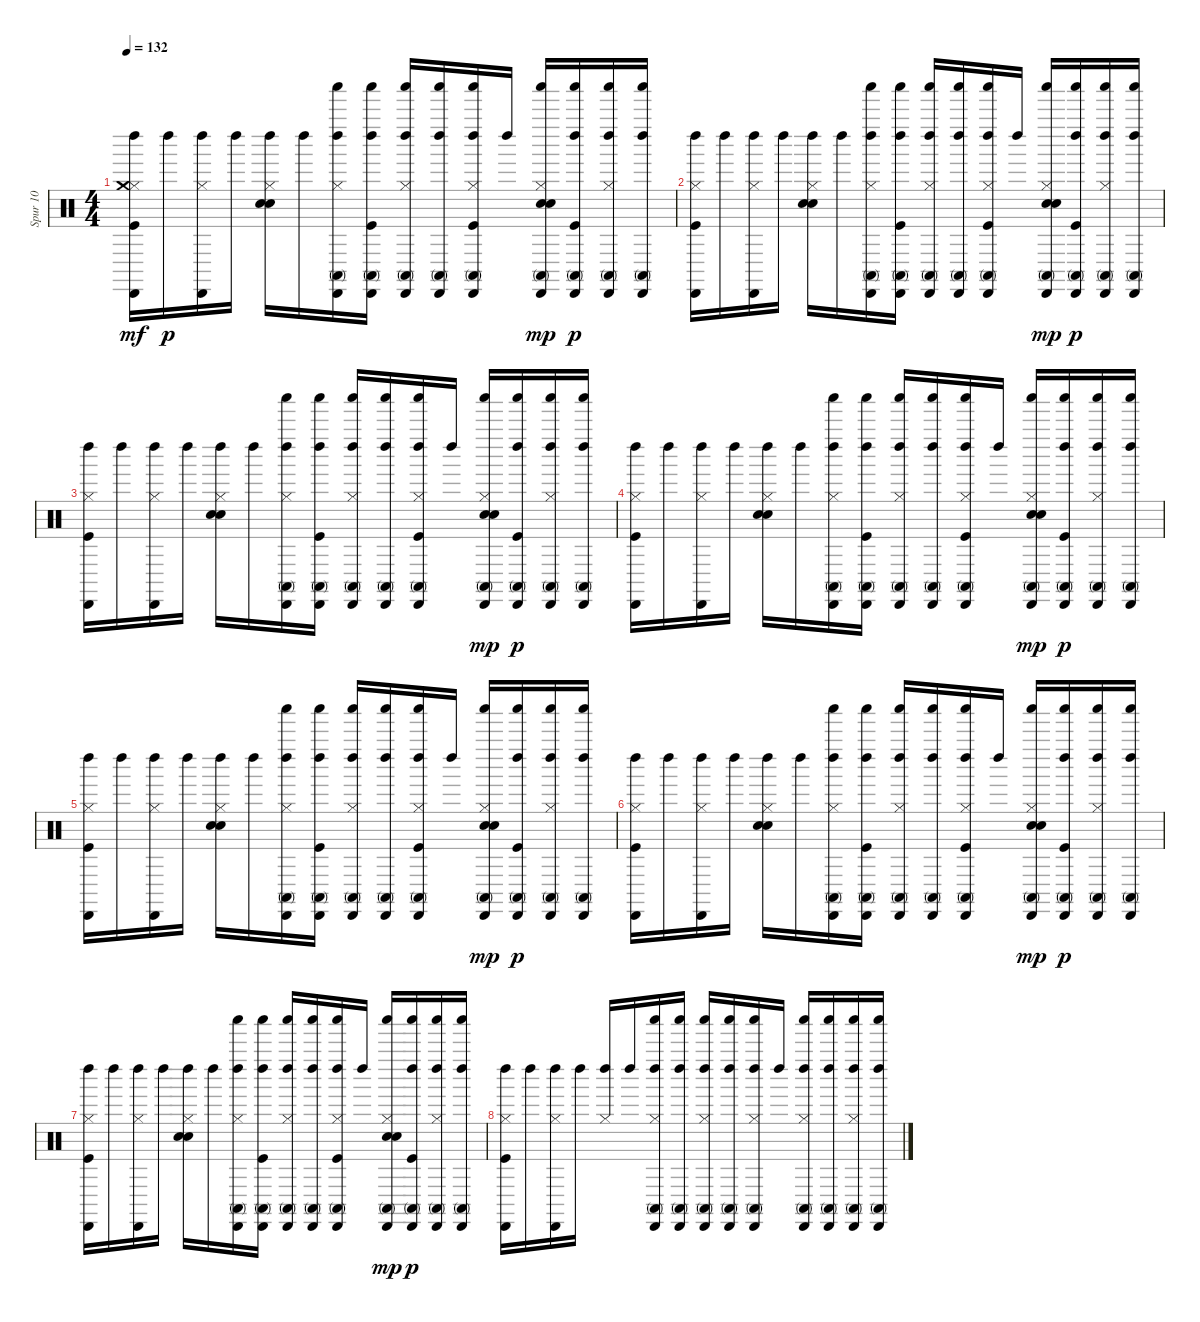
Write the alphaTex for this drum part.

\track ("Spur 10" "Spur 10") {instrument percussion}
\staff {score}
\articulation defaults
\ts (4 4)
\tempo 132
\clef neutral
\ks c
("Kick (hit)" "Hi-Hat (closed)" "Cabasa (hit)" "Left Maraca (hit)" "Crash medium (hit)").16{dy mf} "Left Maraca (hit)".16{dy p} ("Hi-Hat (closed)" "Cabasa (hit)" "Left Maraca (hit)").16 "Left Maraca (hit)".16 ("Hi-Hat (closed)" "Snare (hit) 2" "Hand Clap (hit)" "Left Maraca (hit)").16 "Left Maraca (hit)".16 ("Shaker (hit)" "Hi-Hat (closed)" "Conga high (mute)" "Cabasa (hit)" "Left Maraca (hit)").16 ("Shaker (hit)" "Kick (hit)" "Conga high (mute)" "Cabasa (hit)" "Left Maraca (hit)").16 ("Shaker (hit)" "Hi-Hat (closed)" "Conga high (mute)" "Cabasa (hit)" "Left Maraca (hit)").16 ("Shaker (hit)" "Conga high (mute)" "Cabasa (hit)" "Left Maraca (hit)").16 ("Shaker (hit)" "Kick (hit)" "Hi-Hat (closed)" "Conga high (mute)" "Cabasa (hit)" "Left Maraca (hit)").16 "Left Maraca (hit)".16 ("Shaker (hit)" "Hi-Hat (closed)" "Snare (hit) 2" "Conga high (mute)" "Cabasa (hit)" "Hand Clap (hit)").16{dy mp} ("Shaker (hit)" "Kick (hit)" "Conga high (mute)" "Cabasa (hit)" "Left Maraca (hit)").16{dy p} ("Shaker (hit)" "Hi-Hat (closed)" "Conga high (mute)" "Cabasa (hit)" "Left Maraca (hit)").16 ("Shaker (hit)" "Conga high (mute)" "Cabasa (hit)" "Left Maraca (hit)").16 |
("Kick (hit)" "Hi-Hat (closed)" "Cabasa (hit)" "Left Maraca (hit)").16 "Left Maraca (hit)".16 ("Hi-Hat (closed)" "Cabasa (hit)" "Left Maraca (hit)").16 "Left Maraca (hit)".16 ("Hi-Hat (closed)" "Snare (hit) 2" "Hand Clap (hit)" "Left Maraca (hit)").16 "Left Maraca (hit)".16 ("Shaker (hit)" "Hi-Hat (closed)" "Cabasa (hit)" "Conga high (mute)" "Left Maraca (hit)").16 ("Shaker (hit)" "Kick (hit)" "Cabasa (hit)" "Conga high (mute)" "Left Maraca (hit)").16 ("Shaker (hit)" "Hi-Hat (closed)" "Cabasa (hit)" "Conga high (mute)" "Left Maraca (hit)").16 ("Shaker (hit)" "Cabasa (hit)" "Conga high (mute)" "Left Maraca (hit)").16 ("Shaker (hit)" "Kick (hit)" "Hi-Hat (closed)" "Cabasa (hit)" "Conga high (mute)" "Left Maraca (hit)").16 "Left Maraca (hit)".16 ("Shaker (hit)" "Hi-Hat (closed)" "Snare (hit) 2" "Cabasa (hit)" "Conga high (mute)" "Hand Clap (hit)").16{dy mp} ("Shaker (hit)" "Kick (hit)" "Cabasa (hit)" "Conga high (mute)" "Left Maraca (hit)").16{dy p} ("Shaker (hit)" "Hi-Hat (closed)" "Cabasa (hit)" "Conga high (mute)" "Left Maraca (hit)").16 ("Shaker (hit)" "Cabasa (hit)" "Conga high (mute)" "Left Maraca (hit)").16 |
("Kick (hit)" "Hi-Hat (closed)" "Cabasa (hit)" "Left Maraca (hit)").16 "Left Maraca (hit)".16 ("Hi-Hat (closed)" "Cabasa (hit)" "Left Maraca (hit)").16 "Left Maraca (hit)".16 ("Hi-Hat (closed)" "Snare (hit) 2" "Hand Clap (hit)" "Left Maraca (hit)").16 "Left Maraca (hit)".16 ("Shaker (hit)" "Hi-Hat (closed)" "Conga high (mute)" "Cabasa (hit)" "Left Maraca (hit)").16 ("Shaker (hit)" "Kick (hit)" "Conga high (mute)" "Cabasa (hit)" "Left Maraca (hit)").16 ("Shaker (hit)" "Hi-Hat (closed)" "Conga high (mute)" "Cabasa (hit)" "Left Maraca (hit)").16 ("Shaker (hit)" "Conga high (mute)" "Cabasa (hit)" "Left Maraca (hit)").16 ("Shaker (hit)" "Kick (hit)" "Hi-Hat (closed)" "Conga high (mute)" "Cabasa (hit)" "Left Maraca (hit)").16 "Left Maraca (hit)".16 ("Shaker (hit)" "Hi-Hat (closed)" "Snare (hit) 2" "Conga high (mute)" "Cabasa (hit)" "Hand Clap (hit)").16{dy mp} ("Shaker (hit)" "Kick (hit)" "Conga high (mute)" "Cabasa (hit)" "Left Maraca (hit)").16{dy p} ("Shaker (hit)" "Hi-Hat (closed)" "Conga high (mute)" "Cabasa (hit)" "Left Maraca (hit)").16 ("Shaker (hit)" "Conga high (mute)" "Cabasa (hit)" "Left Maraca (hit)").16 |
("Kick (hit)" "Hi-Hat (closed)" "Cabasa (hit)" "Left Maraca (hit)").16 "Left Maraca (hit)".16 ("Hi-Hat (closed)" "Cabasa (hit)" "Left Maraca (hit)").16 "Left Maraca (hit)".16 ("Hi-Hat (closed)" "Snare (hit) 2" "Hand Clap (hit)" "Left Maraca (hit)").16 "Left Maraca (hit)".16 ("Shaker (hit)" "Hi-Hat (closed)" "Conga high (mute)" "Cabasa (hit)" "Left Maraca (hit)").16 ("Shaker (hit)" "Kick (hit)" "Conga high (mute)" "Cabasa (hit)" "Left Maraca (hit)").16 ("Shaker (hit)" "Hi-Hat (closed)" "Conga high (mute)" "Cabasa (hit)" "Left Maraca (hit)").16 ("Shaker (hit)" "Conga high (mute)" "Cabasa (hit)" "Left Maraca (hit)").16 ("Shaker (hit)" "Kick (hit)" "Hi-Hat (closed)" "Conga high (mute)" "Cabasa (hit)" "Left Maraca (hit)").16 "Left Maraca (hit)".16 ("Shaker (hit)" "Hi-Hat (closed)" "Snare (hit) 2" "Conga high (mute)" "Cabasa (hit)" "Hand Clap (hit)").16{dy mp} ("Shaker (hit)" "Kick (hit)" "Conga high (mute)" "Cabasa (hit)" "Left Maraca (hit)").16{dy p} ("Shaker (hit)" "Hi-Hat (closed)" "Conga high (mute)" "Cabasa (hit)" "Left Maraca (hit)").16 ("Shaker (hit)" "Conga high (mute)" "Cabasa (hit)" "Left Maraca (hit)").16 |
("Kick (hit)" "Hi-Hat (closed)" "Left Maraca (hit)" "Cabasa (hit)").16 "Left Maraca (hit)".16 ("Hi-Hat (closed)" "Left Maraca (hit)" "Cabasa (hit)").16 "Left Maraca (hit)".16 ("Hi-Hat (closed)" "Snare (hit) 2" "Hand Clap (hit)" "Left Maraca (hit)").16 "Left Maraca (hit)".16 ("Shaker (hit)" "Hi-Hat (closed)" "Cabasa (hit)" "Conga high (mute)" "Left Maraca (hit)").16 ("Shaker (hit)" "Kick (hit)" "Cabasa (hit)" "Conga high (mute)" "Left Maraca (hit)").16 ("Shaker (hit)" "Hi-Hat (closed)" "Cabasa (hit)" "Conga high (mute)" "Left Maraca (hit)").16 ("Shaker (hit)" "Cabasa (hit)" "Conga high (mute)" "Left Maraca (hit)").16 ("Shaker (hit)" "Kick (hit)" "Hi-Hat (closed)" "Cabasa (hit)" "Conga high (mute)" "Left Maraca (hit)").16 "Left Maraca (hit)".16 ("Shaker (hit)" "Hi-Hat (closed)" "Snare (hit) 2" "Cabasa (hit)" "Conga high (mute)" "Hand Clap (hit)").16{dy mp} ("Shaker (hit)" "Kick (hit)" "Cabasa (hit)" "Conga high (mute)" "Left Maraca (hit)").16{dy p} ("Shaker (hit)" "Hi-Hat (closed)" "Cabasa (hit)" "Conga high (mute)" "Left Maraca (hit)").16 ("Shaker (hit)" "Cabasa (hit)" "Conga high (mute)" "Left Maraca (hit)").16 |
("Kick (hit)" "Hi-Hat (closed)" "Cabasa (hit)" "Left Maraca (hit)").16 "Left Maraca (hit)".16 ("Hi-Hat (closed)" "Cabasa (hit)" "Left Maraca (hit)").16 "Left Maraca (hit)".16 ("Hi-Hat (closed)" "Snare (hit) 2" "Hand Clap (hit)" "Left Maraca (hit)").16 "Left Maraca (hit)".16 ("Shaker (hit)" "Hi-Hat (closed)" "Conga high (mute)" "Cabasa (hit)" "Left Maraca (hit)").16 ("Shaker (hit)" "Kick (hit)" "Conga high (mute)" "Cabasa (hit)" "Left Maraca (hit)").16 ("Shaker (hit)" "Hi-Hat (closed)" "Conga high (mute)" "Cabasa (hit)" "Left Maraca (hit)").16 ("Shaker (hit)" "Conga high (mute)" "Cabasa (hit)" "Left Maraca (hit)").16 ("Shaker (hit)" "Kick (hit)" "Hi-Hat (closed)" "Conga high (mute)" "Cabasa (hit)" "Left Maraca (hit)").16 "Left Maraca (hit)".16 ("Shaker (hit)" "Hi-Hat (closed)" "Snare (hit) 2" "Conga high (mute)" "Cabasa (hit)" "Hand Clap (hit)").16{dy mp} ("Shaker (hit)" "Kick (hit)" "Conga high (mute)" "Cabasa (hit)" "Left Maraca (hit)").16{dy p} ("Shaker (hit)" "Hi-Hat (closed)" "Conga high (mute)" "Cabasa (hit)" "Left Maraca (hit)").16 ("Shaker (hit)" "Conga high (mute)" "Cabasa (hit)" "Left Maraca (hit)").16 |
("Kick (hit)" "Hi-Hat (closed)" "Cabasa (hit)" "Left Maraca (hit)").16 "Left Maraca (hit)".16 ("Hi-Hat (closed)" "Cabasa (hit)" "Left Maraca (hit)").16 "Left Maraca (hit)".16 ("Hi-Hat (closed)" "Snare (hit) 2" "Hand Clap (hit)" "Left Maraca (hit)").16 "Left Maraca (hit)".16 ("Shaker (hit)" "Hi-Hat (closed)" "Cabasa (hit)" "Conga high (mute)" "Left Maraca (hit)").16 ("Shaker (hit)" "Kick (hit)" "Cabasa (hit)" "Conga high (mute)" "Left Maraca (hit)").16 ("Shaker (hit)" "Hi-Hat (closed)" "Cabasa (hit)" "Conga high (mute)" "Left Maraca (hit)").16 ("Shaker (hit)" "Cabasa (hit)" "Conga high (mute)" "Left Maraca (hit)").16 ("Shaker (hit)" "Kick (hit)" "Hi-Hat (closed)" "Cabasa (hit)" "Conga high (mute)" "Left Maraca (hit)").16 "Left Maraca (hit)".16 ("Shaker (hit)" "Hi-Hat (closed)" "Snare (hit) 2" "Cabasa (hit)" "Conga high (mute)" "Hand Clap (hit)").16{dy mp} ("Shaker (hit)" "Kick (hit)" "Cabasa (hit)" "Conga high (mute)" "Left Maraca (hit)").16{dy p} ("Shaker (hit)" "Hi-Hat (closed)" "Cabasa (hit)" "Conga high (mute)" "Left Maraca (hit)").16 ("Shaker (hit)" "Cabasa (hit)" "Conga high (mute)" "Left Maraca (hit)").16 |
("Kick (hit)" "Hi-Hat (closed)" "Cabasa (hit)" "Left Maraca (hit)").16 "Left Maraca (hit)".16 ("Hi-Hat (closed)" "Cabasa (hit)" "Left Maraca (hit)").16 "Left Maraca (hit)".16 ("Hi-Hat (closed)" "Left Maraca (hit)").16 "Left Maraca (hit)".16 ("Shaker (hit)" "Hi-Hat (closed)" "Conga high (mute)" "Cabasa (hit)" "Left Maraca (hit)").16 ("Shaker (hit)" "Conga high (mute)" "Cabasa (hit)" "Left Maraca (hit)").16 ("Shaker (hit)" "Hi-Hat (closed)" "Conga high (mute)" "Cabasa (hit)" "Left Maraca (hit)").16 ("Shaker (hit)" "Conga high (mute)" "Cabasa (hit)" "Left Maraca (hit)").16 ("Shaker (hit)" "Hi-Hat (closed)" "Conga high (mute)" "Cabasa (hit)" "Left Maraca (hit)").16 "Left Maraca (hit)".16 ("Shaker (hit)" "Hi-Hat (closed)" "Conga high (mute)" "Cabasa (hit)" "Left Maraca (hit)").16 ("Shaker (hit)" "Conga high (mute)" "Cabasa (hit)" "Left Maraca (hit)").16 ("Shaker (hit)" "Hi-Hat (closed)" "Conga high (mute)" "Cabasa (hit)" "Left Maraca (hit)").16 ("Shaker (hit)" "Conga high (mute)" "Cabasa (hit)" "Left Maraca (hit)").16
